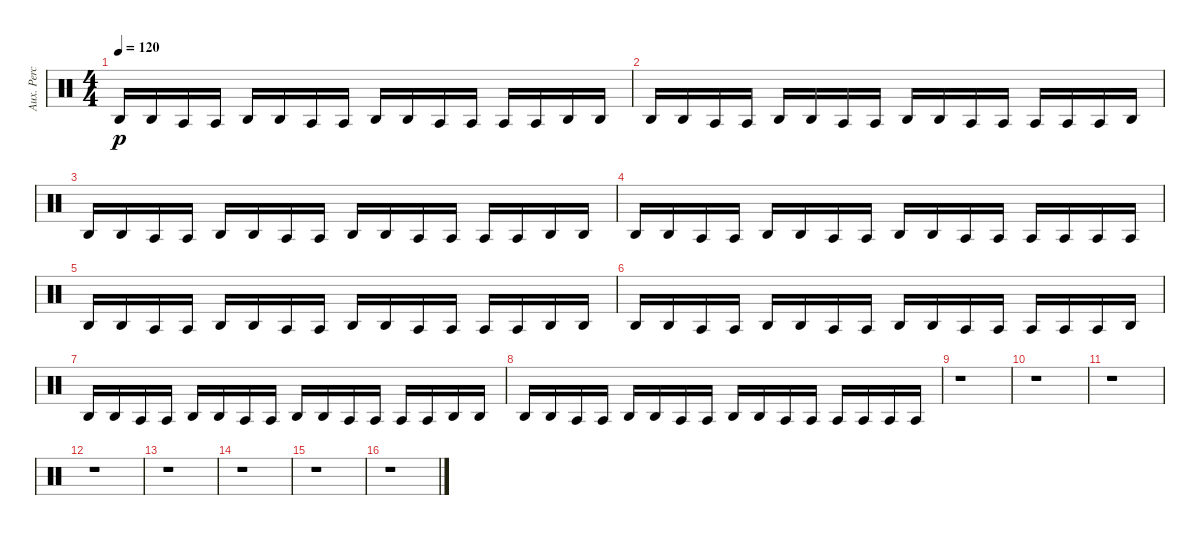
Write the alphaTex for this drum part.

\track ("Aux. Perc" "Aux. Perc") {instrument percussion}
\staff {score}
\articulation defaults
\ts (4 4)
\tempo 120
\clef neutral
\ks c "Agogo high (hit)".16{dy p} "Agogo high (hit)".16 "Agogo tow (hit)".16 "Agogo tow (hit)".16 "Agogo high (hit)".16 "Agogo high (hit)".16 "Agogo tow (hit)".16 "Agogo tow (hit)".16 "Agogo high (hit)".16 "Agogo high (hit)".16 "Agogo tow (hit)".16 "Agogo tow (hit)".16 "Agogo tow (hit)".16 "Agogo tow (hit)".16 "Agogo high (hit)".16 "Agogo high (hit)".16
|
"Agogo high (hit)".16 "Agogo high (hit)".16 "Agogo tow (hit)".16 "Agogo tow (hit)".16 "Agogo high (hit)".16 "Agogo high (hit)".16 "Agogo tow (hit)".16 "Agogo tow (hit)".16 "Agogo high (hit)".16 "Agogo high (hit)".16 "Agogo tow (hit)".16 "Agogo tow (hit)".16 "Agogo tow (hit)".16 "Agogo tow (hit)".16 "Agogo tow (hit)".16 "Agogo high (hit)".16 |
"Agogo high (hit)".16 "Agogo high (hit)".16 "Agogo tow (hit)".16 "Agogo tow (hit)".16 "Agogo high (hit)".16 "Agogo high (hit)".16 "Agogo tow (hit)".16 "Agogo tow (hit)".16 "Agogo high (hit)".16 "Agogo high (hit)".16 "Agogo tow (hit)".16 "Agogo tow (hit)".16 "Agogo tow (hit)".16 "Agogo tow (hit)".16 "Agogo high (hit)".16 "Agogo high (hit)".16 |
"Agogo high (hit)".16 "Agogo high (hit)".16 "Agogo tow (hit)".16 "Agogo tow (hit)".16 "Agogo high (hit)".16 "Agogo high (hit)".16 "Agogo tow (hit)".16 "Agogo tow (hit)".16 "Agogo high (hit)".16 "Agogo high (hit)".16 "Agogo tow (hit)".16 "Agogo tow (hit)".16 "Agogo tow (hit)".16 "Agogo tow (hit)".16 "Agogo tow (hit)".16 "Agogo tow (hit)".16 |
"Agogo high (hit)".16 "Agogo high (hit)".16 "Agogo tow (hit)".16 "Agogo tow (hit)".16 "Agogo high (hit)".16 "Agogo high (hit)".16 "Agogo tow (hit)".16 "Agogo tow (hit)".16 "Agogo high (hit)".16 "Agogo high (hit)".16 "Agogo tow (hit)".16 "Agogo tow (hit)".16 "Agogo tow (hit)".16 "Agogo tow (hit)".16 "Agogo high (hit)".16 "Agogo high (hit)".16 |
"Agogo high (hit)".16 "Agogo high (hit)".16 "Agogo tow (hit)".16 "Agogo tow (hit)".16 "Agogo high (hit)".16 "Agogo high (hit)".16 "Agogo tow (hit)".16 "Agogo tow (hit)".16 "Agogo high (hit)".16 "Agogo high (hit)".16 "Agogo tow (hit)".16 "Agogo tow (hit)".16 "Agogo tow (hit)".16 "Agogo tow (hit)".16 "Agogo tow (hit)".16 "Agogo high (hit)".16 |
"Agogo high (hit)".16 "Agogo high (hit)".16 "Agogo tow (hit)".16 "Agogo tow (hit)".16 "Agogo high (hit)".16 "Agogo high (hit)".16 "Agogo tow (hit)".16 "Agogo tow (hit)".16 "Agogo high (hit)".16 "Agogo high (hit)".16 "Agogo tow (hit)".16 "Agogo tow (hit)".16 "Agogo tow (hit)".16 "Agogo tow (hit)".16 "Agogo high (hit)".16 "Agogo high (hit)".16 |
"Agogo high (hit)".16 "Agogo high (hit)".16 "Agogo tow (hit)".16 "Agogo tow (hit)".16 "Agogo high (hit)".16 "Agogo high (hit)".16 "Agogo tow (hit)".16 "Agogo tow (hit)".16 "Agogo high (hit)".16 "Agogo high (hit)".16 "Agogo tow (hit)".16 "Agogo tow (hit)".16 "Agogo tow (hit)".16 "Agogo tow (hit)".16 "Agogo tow (hit)".16 "Agogo tow (hit)".16 |
r.1 |
r.1 |
r.1 |
r.1 |
r.1 |
r.1 |
r.1 |
r.1
